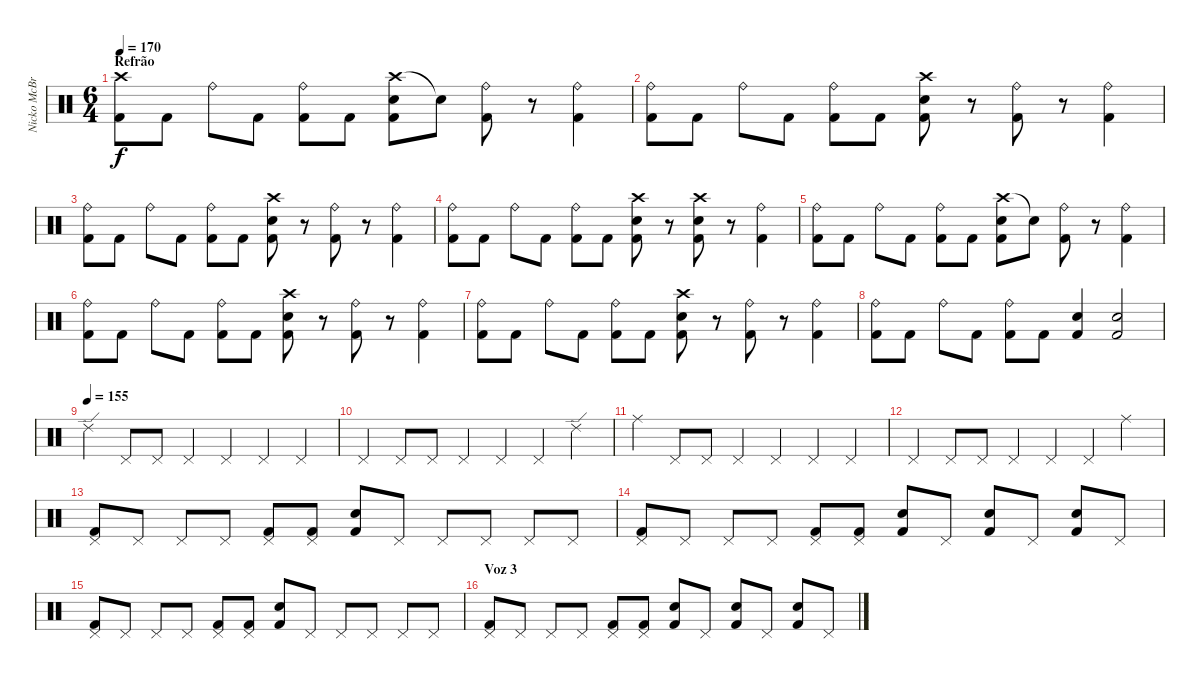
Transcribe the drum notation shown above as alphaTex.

\track ("Nicko McBrain" "Nicko McBr") {instrument percussion}
\staff {score}
\articulation defaults
\ts (6 4)
\section ("" "Refrão")
\tempo 170
\clef neutral
\ks c
("Crash high (hit)" "Kick (hit) 2").8{dy f balance 0} "Kick (hit) 2".8 "Ride (bell)".8 "Kick (hit) 2".8 ("Ride (bell)" "Kick (hit) 2").8 "Kick (hit) 2".8 ("Crash high (hit)" "Snare (hit) 2" "Kick (hit) 2").8 "Snare (hit) 2"{t}.8 ("Ride (bell)" "Kick (hit) 2").8 r.8 ("Ride (bell)" "Kick (hit) 2").4 |
("Ride (bell)" "Kick (hit) 2").8 "Kick (hit) 2".8 "Ride (bell)".8 "Kick (hit) 2".8 ("Ride (bell)" "Kick (hit) 2").8 "Kick (hit) 2".8 ("Crash high (hit)" "Snare (hit) 2" "Kick (hit) 2").8 r.8 ("Ride (bell)" "Kick (hit) 2").8 r.8 ("Ride (bell)" "Kick (hit) 2").4 |
("Ride (bell)" "Kick (hit) 2").8 "Kick (hit) 2".8 "Ride (bell)".8 "Kick (hit) 2".8 ("Ride (bell)" "Kick (hit) 2").8 "Kick (hit) 2".8 ("Snare (hit) 2" "Crash high (hit)" "Kick (hit) 2").8 r.8 ("Ride (bell)" "Kick (hit) 2").8 r.8 ("Ride (bell)" "Kick (hit) 2").4 |
("Ride (bell)" "Kick (hit) 2").8 "Kick (hit) 2".8 "Ride (bell)".8 "Kick (hit) 2".8 ("Ride (bell)" "Kick (hit) 2").8 "Kick (hit) 2".8 ("Crash high (hit)" "Snare (hit) 2" "Kick (hit) 2").8 r.8 ("Snare (hit) 2" "Crash high (hit)" "Kick (hit) 2").8 r.8 ("Ride (bell)" "Kick (hit) 2").4 |
("Ride (bell)" "Kick (hit) 2").8 "Kick (hit) 2".8 "Ride (bell)".8 "Kick (hit) 2".8 ("Ride (bell)" "Kick (hit) 2").8 "Kick (hit) 2".8 ("Crash high (hit)" "Snare (hit) 2" "Kick (hit) 2").8 "Snare (hit) 2"{t}.8 ("Ride (bell)" "Kick (hit) 2").8 r.8 ("Ride (bell)" "Kick (hit) 2").4 |
("Ride (bell)" "Kick (hit) 2").8 "Kick (hit) 2".8 "Ride (bell)".8 "Kick (hit) 2".8 ("Ride (bell)" "Kick (hit) 2").8 "Kick (hit) 2".8 ("Crash high (hit)" "Snare (hit) 2" "Kick (hit) 2").8 r.8 ("Ride (bell)" "Kick (hit) 2").8 r.8 ("Ride (bell)" "Kick (hit) 2").4 |
("Ride (bell)" "Kick (hit) 2").8 "Kick (hit) 2".8 "Ride (bell)".8 "Kick (hit) 2".8 ("Ride (bell)" "Kick (hit) 2").8 "Kick (hit) 2".8 ("Snare (hit) 2" "Crash high (hit)" "Kick (hit) 2").8 r.8 ("Ride (bell)" "Kick (hit) 2").8 r.8 ("Ride (bell)" "Kick (hit) 2").4 |
("Ride (bell)" "Kick (hit) 2").8 "Kick (hit) 2".8 "Ride (bell)".8 "Kick (hit) 2".8 ("Ride (bell)" "Kick (hit) 2").8 "Kick (hit) 2".8 ("Snare (hit) 2" "Kick (hit) 2").4 ("Snare (hit) 2" "Kick (hit) 2").2 |
\tempo (155)
"Ride (edge) 2".4{balance 0} "Pedal Hi-Hat (hit)".8 "Pedal Hi-Hat (hit)".8 "Pedal Hi-Hat (hit)".4 "Pedal Hi-Hat (hit)".4 "Pedal Hi-Hat (hit)".4 "Pedal Hi-Hat (hit)".4 |
"Pedal Hi-Hat (hit)".4 "Pedal Hi-Hat (hit)".8 "Pedal Hi-Hat (hit)".8 "Pedal Hi-Hat (hit)".4 "Pedal Hi-Hat (hit)".4 "Pedal Hi-Hat (hit)".4 "Ride (edge) 2".4 |
"Ride (middle)".4 "Pedal Hi-Hat (hit)".8 "Pedal Hi-Hat (hit)".8 "Pedal Hi-Hat (hit)".4 "Pedal Hi-Hat (hit)".4 "Pedal Hi-Hat (hit)".4 "Pedal Hi-Hat (hit)".4 |
"Pedal Hi-Hat (hit)".4 "Pedal Hi-Hat (hit)".8 "Pedal Hi-Hat (hit)".8 "Pedal Hi-Hat (hit)".4 "Pedal Hi-Hat (hit)".4 "Pedal Hi-Hat (hit)".4 "Ride (middle)".4 |
("Pedal Hi-Hat (hit)" "Kick (hit) 2").8 "Pedal Hi-Hat (hit)".8 "Pedal Hi-Hat (hit)".8 "Pedal Hi-Hat (hit)".8 ("Pedal Hi-Hat (hit)" "Kick (hit) 2").8 ("Pedal Hi-Hat (hit)" "Kick (hit) 2").8 ("Snare (hit) 2" "Kick (hit) 2").8 "Pedal Hi-Hat (hit)".8 "Pedal Hi-Hat (hit)".8 "Pedal Hi-Hat (hit)".8 "Pedal Hi-Hat (hit)".8 "Pedal Hi-Hat (hit)".8 |
("Pedal Hi-Hat (hit)" "Kick (hit) 2").8 "Pedal Hi-Hat (hit)".8 "Pedal Hi-Hat (hit)".8 "Pedal Hi-Hat (hit)".8 ("Pedal Hi-Hat (hit)" "Kick (hit) 2").8 ("Pedal Hi-Hat (hit)" "Kick (hit) 2").8 ("Snare (hit) 2" "Kick (hit) 2").8 "Pedal Hi-Hat (hit)".8 ("Snare (hit) 2" "Kick (hit) 2").8 "Pedal Hi-Hat (hit)".8 ("Snare (hit) 2" "Kick (hit) 2").8 "Pedal Hi-Hat (hit)".8 |
("Pedal Hi-Hat (hit)" "Kick (hit) 2").8 "Pedal Hi-Hat (hit)".8 "Pedal Hi-Hat (hit)".8 "Pedal Hi-Hat (hit)".8 ("Pedal Hi-Hat (hit)" "Kick (hit) 2").8 ("Pedal Hi-Hat (hit)" "Kick (hit) 2").8 ("Snare (hit) 2" "Kick (hit) 2").8 "Pedal Hi-Hat (hit)".8 "Pedal Hi-Hat (hit)".8 "Pedal Hi-Hat (hit)".8 "Pedal Hi-Hat (hit)".8 "Pedal Hi-Hat (hit)".8 |
\section ("" "Voz 3")
("Pedal Hi-Hat (hit)" "Kick (hit) 2").8 "Pedal Hi-Hat (hit)".8 "Pedal Hi-Hat (hit)".8 "Pedal Hi-Hat (hit)".8 ("Pedal Hi-Hat (hit)" "Kick (hit) 2").8 ("Pedal Hi-Hat (hit)" "Kick (hit) 2").8 ("Snare (hit) 2" "Kick (hit) 2").8 "Pedal Hi-Hat (hit)".8 ("Snare (hit) 2" "Kick (hit) 2").8 "Pedal Hi-Hat (hit)".8 ("Snare (hit) 2" "Kick (hit) 2").8 "Pedal Hi-Hat (hit)".8
